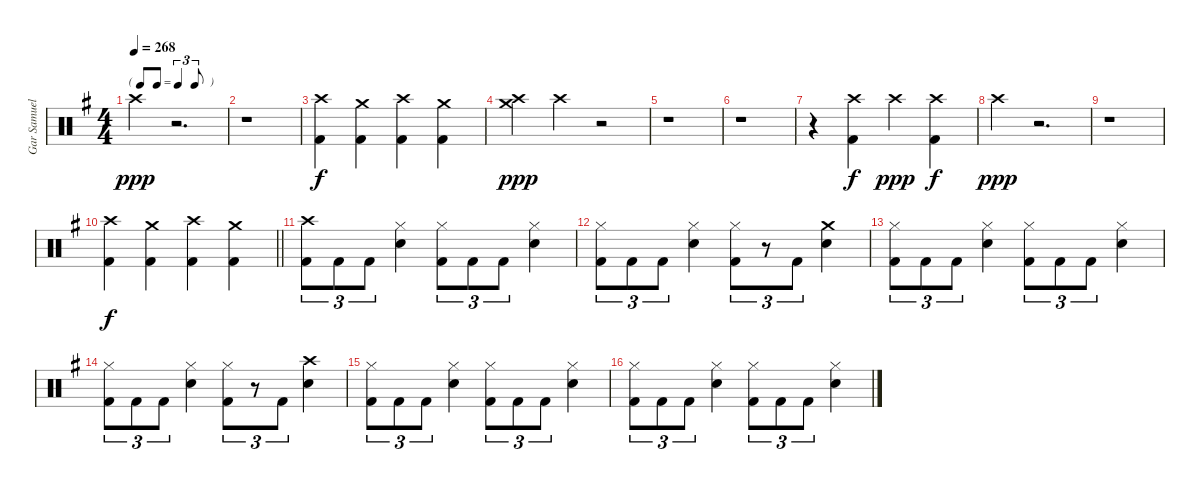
\track ("Gar Samuelson" "Gar Samuel") {instrument percussion}
\staff {score}
\articulation defaults
\ts (4 4)
\tf triplet8th
\tempo 268
\clef neutral
\ks g "Crash high (hit)".4{dy ppp}
r.2{d} |
r.1 |
("Crash high (hit)" "Kick (hit) 2").4{dy f} ("Crash medium (hit)" "Kick (hit) 2").4 ("Crash high (hit)" "Kick (hit) 2").4 ("Crash medium (hit)" "Kick (hit) 2").4 |
("Crash high (hit)" "Crash medium (hit)").4{dy ppp} "Crash high (hit)".4 r.2 |
r.1 |
r.1 |
r.4 ("Crash high (hit)" "Kick (hit) 2").4{dy f} "Crash high (hit)".4{dy ppp} ("Crash high (hit)" "Kick (hit) 2").4{dy f} |
"Crash high (hit)".4{dy ppp} r.2{d} |
r.1 |
\barLineRight lightlight
("Crash high (hit)" "Kick (hit) 2").4{dy f} ("Crash medium (hit)" "Kick (hit) 2").4 ("Crash high (hit)" "Kick (hit) 2").4 ("Crash medium (hit)" "Kick (hit) 2").4 |
("Crash high (hit)" "Kick (hit) 2").8{tu (3 2)} "Kick (hit) 2".8{tu (3 2)} "Kick (hit) 2".8{tu (3 2)} ("Hi-Hat (closed)" "Snare (hit) 2").4 ("Hi-Hat (closed)" "Kick (hit) 2").8{tu (3 2)} "Kick (hit) 2".8{tu (3 2)} "Kick (hit) 2".8{tu (3 2)} ("Hi-Hat (closed)" "Snare (hit) 2").4 |
("Hi-Hat (closed)" "Kick (hit) 2").8{tu (3 2)} "Kick (hit) 2".8{tu (3 2)} "Kick (hit) 2".8{tu (3 2)} ("Hi-Hat (closed)" "Snare (hit) 2").4 ("Hi-Hat (closed)" "Kick (hit) 2").8{tu (3 2)} r.8{tu (3 2)} "Kick (hit) 2".8{tu (3 2)} ("Crash medium (hit)" "Snare (hit) 2").4 |
("Hi-Hat (closed)" "Kick (hit) 2").8{tu (3 2)} "Kick (hit) 2".8{tu (3 2)} "Kick (hit) 2".8{tu (3 2)} ("Hi-Hat (closed)" "Snare (hit) 2").4 ("Hi-Hat (closed)" "Kick (hit) 2").8{tu (3 2)} "Kick (hit) 2".8{tu (3 2)} "Kick (hit) 2".8{tu (3 2)} ("Hi-Hat (closed)" "Snare (hit) 2").4 |
("Hi-Hat (closed)" "Kick (hit) 2").8{tu (3 2)} "Kick (hit) 2".8{tu (3 2)} "Kick (hit) 2".8{tu (3 2)} ("Hi-Hat (closed)" "Snare (hit) 2").4 ("Hi-Hat (closed)" "Kick (hit) 2").8{tu (3 2)} r.8{tu (3 2)} "Kick (hit) 2".8{tu (3 2)} ("Crash high (hit)" "Snare (hit) 2").4 |
("Hi-Hat (closed)" "Kick (hit) 2").8{tu (3 2)} "Kick (hit) 2".8{tu (3 2)} "Kick (hit) 2".8{tu (3 2)} ("Hi-Hat (closed)" "Snare (hit) 2").4 ("Hi-Hat (closed)" "Kick (hit) 2").8{tu (3 2)} "Kick (hit) 2".8{tu (3 2)} "Kick (hit) 2".8{tu (3 2)} ("Hi-Hat (closed)" "Snare (hit) 2").4 |
("Hi-Hat (closed)" "Kick (hit) 2").8{tu (3 2)} "Kick (hit) 2".8{tu (3 2)} "Kick (hit) 2".8{tu (3 2)} ("Hi-Hat (closed)" "Snare (hit) 2").4 ("Hi-Hat (closed)" "Kick (hit) 2").8{tu (3 2)} "Kick (hit) 2".8{tu (3 2)} "Kick (hit) 2".8{tu (3 2)} ("Hi-Hat (closed)" "Snare (hit) 2").4
